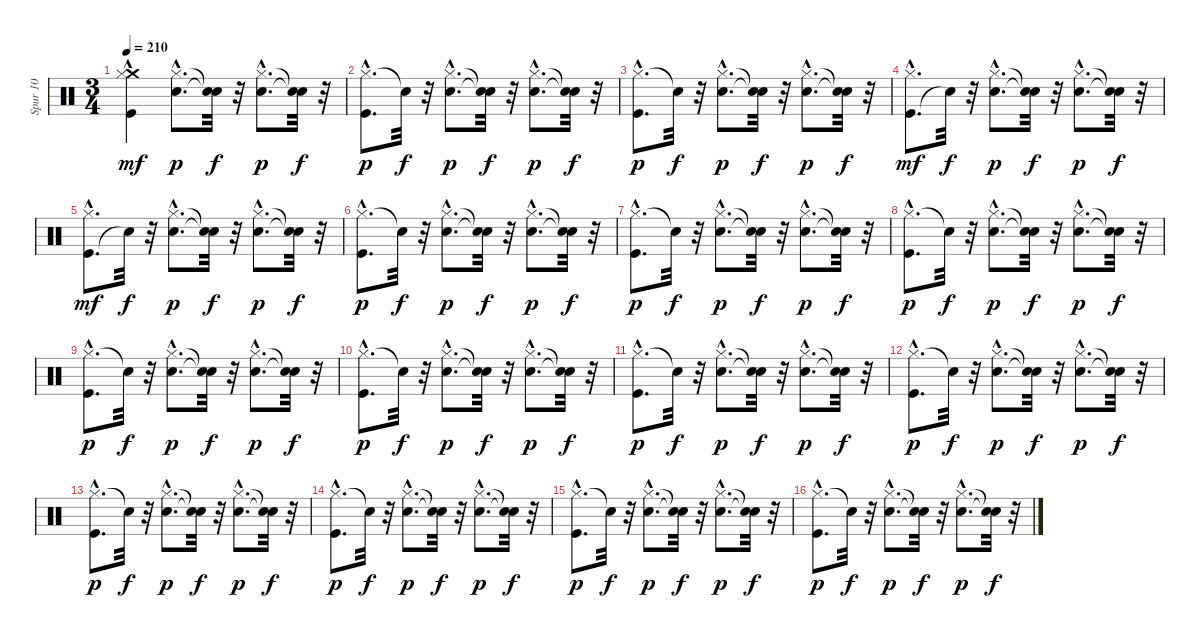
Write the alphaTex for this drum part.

\track ("Spur 10" "Spur 10") {instrument percussion}
\staff {score}
\articulation defaults
\ts (3 4)
\tempo 210
\clef neutral
\ks c
("Crash medium (hit)" "Kick (hit)"{hac} "Hi-Hat (closed)").4{dy mf} ("Snare (hit) 2"{hac} "Hi-Hat (closed)"{hac}).8{d dy p} ("Snare (hit)"{t} "Snare (hit)"{t}).32{dy f} r.32 ("Snare (hit) 2"{hac} "Hi-Hat (closed)"{hac}).8{d dy p} ("Snare (hit)"{t} "Snare (hit)"{t}).32{dy f} r.32 |
("Hi-Hat (closed)" "Kick (hit)"{hac}).8{d dy p} "Snare (hit)"{t}.32{dy f} r.32 ("Snare (hit) 2"{hac} "Hi-Hat (closed)"{hac}).8{d dy p} ("Snare (hit)"{t} "Snare (hit)"{t}).32{dy f} r.32 ("Snare (hit) 2"{hac} "Hi-Hat (closed)"{hac}).8{d dy p} ("Snare (hit)"{t} "Snare (hit)"{t}).32{dy f} r.32 |
("Hi-Hat (closed)" "Kick (hit)"{hac}).8{d dy p} "Snare (hit)"{t}.32{dy f} r.32 ("Snare (hit) 2"{hac} "Hi-Hat (closed)"{hac}).8{d dy p} ("Snare (hit)"{t} "Snare (hit)"{t}).32{dy f} r.32 ("Snare (hit) 2"{hac} "Hi-Hat (closed)"{hac}).8{d dy p} ("Snare (hit)"{t} "Snare (hit)"{t}).32{dy f} r.32 |
("Kick (hit)"{hac} "Hi-Hat (closed)").8{d dy mf} "Snare (hit)"{t}.32{dy f} r.32 ("Snare (hit) 2"{hac} "Hi-Hat (closed)"{hac}).8{d dy p} ("Snare (hit)"{t} "Snare (hit)"{t}).32{dy f} r.32 ("Snare (hit) 2"{hac} "Hi-Hat (closed)"{hac}).8{d dy p} ("Snare (hit)"{t} "Snare (hit)"{t}).32{dy f} r.32 |
("Kick (hit)"{hac} "Hi-Hat (closed)").8{d dy mf} "Snare (hit)"{t}.32{dy f} r.32 ("Snare (hit) 2"{hac} "Hi-Hat (closed)"{hac}).8{d dy p} ("Snare (hit)"{t} "Snare (hit)"{t}).32{dy f} r.32 ("Snare (hit) 2"{hac} "Hi-Hat (closed)"{hac}).8{d dy p} ("Snare (hit)"{t} "Snare (hit)"{t}).32{dy f} r.32 |
("Hi-Hat (closed)" "Kick (hit)"{hac}).8{d dy p} "Snare (hit)"{t}.32{dy f} r.32 ("Snare (hit) 2"{hac} "Hi-Hat (closed)"{hac}).8{d dy p} ("Snare (hit)"{t} "Snare (hit)"{t}).32{dy f} r.32 ("Snare (hit) 2"{hac} "Hi-Hat (closed)"{hac}).8{d dy p} ("Snare (hit)"{t} "Snare (hit)"{t}).32{dy f} r.32 |
("Hi-Hat (closed)" "Kick (hit)"{hac}).8{d dy p} "Snare (hit)"{t}.32{dy f} r.32 ("Snare (hit) 2"{hac} "Hi-Hat (closed)"{hac}).8{d dy p} ("Snare (hit)"{t} "Snare (hit)"{t}).32{dy f} r.32 ("Snare (hit) 2"{hac} "Hi-Hat (closed)"{hac}).8{d dy p} ("Snare (hit)"{t} "Snare (hit)"{t}).32{dy f} r.32 |
("Hi-Hat (closed)" "Kick (hit)"{hac}).8{d dy p} "Snare (hit)"{t}.32{dy f} r.32 ("Snare (hit) 2"{hac} "Hi-Hat (closed)"{hac}).8{d dy p} ("Snare (hit)"{t} "Snare (hit)"{t}).32{dy f} r.32 ("Snare (hit) 2"{hac} "Hi-Hat (closed)"{hac}).8{d dy p} ("Snare (hit)"{t} "Snare (hit)"{t}).32{dy f} r.32 |
("Hi-Hat (closed)" "Kick (hit)"{hac}).8{d dy p} "Snare (hit)"{t}.32{dy f} r.32 ("Snare (hit) 2"{hac} "Hi-Hat (closed)"{hac}).8{d dy p} ("Snare (hit)"{t} "Snare (hit)"{t}).32{dy f} r.32 ("Snare (hit) 2"{hac} "Hi-Hat (closed)"{hac}).8{d dy p} ("Snare (hit)"{t} "Snare (hit)"{t}).32{dy f} r.32 |
("Hi-Hat (closed)" "Kick (hit)"{hac}).8{d dy p} "Snare (hit)"{t}.32{dy f} r.32 ("Snare (hit) 2"{hac} "Hi-Hat (closed)"{hac}).8{d dy p} ("Snare (hit)"{t} "Snare (hit)"{t}).32{dy f} r.32 ("Snare (hit) 2"{hac} "Hi-Hat (closed)"{hac}).8{d dy p} ("Snare (hit)"{t} "Snare (hit)"{t}).32{dy f} r.32 |
("Hi-Hat (closed)" "Kick (hit)"{hac}).8{d dy p} "Snare (hit)"{t}.32{dy f} r.32 ("Snare (hit) 2"{hac} "Hi-Hat (closed)"{hac}).8{d dy p} ("Snare (hit)"{t} "Snare (hit)"{t}).32{dy f} r.32 ("Snare (hit) 2"{hac} "Hi-Hat (closed)"{hac}).8{d dy p} ("Snare (hit)"{t} "Snare (hit)"{t}).32{dy f} r.32 |
("Hi-Hat (closed)" "Kick (hit)"{hac}).8{d dy p} "Snare (hit)"{t}.32{dy f} r.32 ("Snare (hit) 2"{hac} "Hi-Hat (closed)"{hac}).8{d dy p} ("Snare (hit)"{t} "Snare (hit)"{t}).32{dy f} r.32 ("Snare (hit) 2"{hac} "Hi-Hat (closed)"{hac}).8{d dy p} ("Snare (hit)"{t} "Snare (hit)"{t}).32{dy f} r.32 |
("Hi-Hat (closed)" "Kick (hit)"{hac}).8{d dy p} "Snare (hit)"{t}.32{dy f} r.32 ("Snare (hit) 2"{hac} "Hi-Hat (closed)"{hac}).8{d dy p} ("Snare (hit)"{t} "Snare (hit)"{t}).32{dy f} r.32 ("Snare (hit) 2"{hac} "Hi-Hat (closed)"{hac}).8{d dy p} ("Snare (hit)"{t} "Snare (hit)"{t}).32{dy f} r.32 |
("Hi-Hat (closed)" "Kick (hit)"{hac}).8{d dy p} "Snare (hit)"{t}.32{dy f} r.32 ("Snare (hit) 2"{hac} "Hi-Hat (closed)"{hac}).8{d dy p} ("Snare (hit)"{t} "Snare (hit)"{t}).32{dy f} r.32 ("Snare (hit) 2"{hac} "Hi-Hat (closed)"{hac}).8{d dy p} ("Snare (hit)"{t} "Snare (hit)"{t}).32{dy f} r.32 |
("Hi-Hat (closed)" "Kick (hit)"{hac}).8{d dy p} "Snare (hit)"{t}.32{dy f} r.32 ("Snare (hit) 2"{hac} "Hi-Hat (closed)"{hac}).8{d dy p} ("Snare (hit)"{t} "Snare (hit)"{t}).32{dy f} r.32 ("Snare (hit) 2"{hac} "Hi-Hat (closed)"{hac}).8{d dy p} ("Snare (hit)"{t} "Snare (hit)"{t}).32{dy f} r.32 |
("Hi-Hat (closed)" "Kick (hit)"{hac}).8{d dy p} "Snare (hit)"{t}.32{dy f} r.32 ("Snare (hit) 2"{hac} "Hi-Hat (closed)"{hac}).8{d dy p} ("Snare (hit)"{t} "Snare (hit)"{t}).32{dy f} r.32 ("Snare (hit) 2"{hac} "Hi-Hat (closed)"{hac}).8{d dy p} ("Snare (hit)"{t} "Snare (hit)"{t}).32{dy f} r.32
